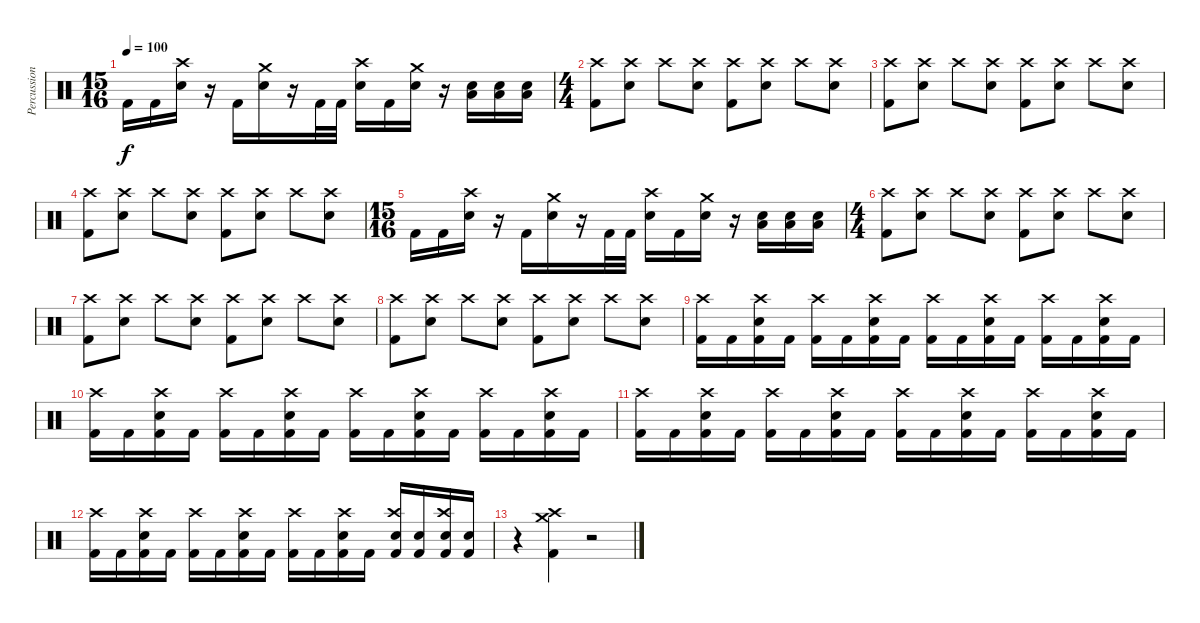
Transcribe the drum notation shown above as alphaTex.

\track ("Percussion" "Percussion") {instrument percussion}
\staff {score}
\articulation defaults
\ts (15 16)
\tempo 100
\clef neutral
\ks c "Kick (hit) 2".16{dy f} "Kick (hit) 2".16
("Crash high (hit)" "Electric Snare (hit)").16 r.16 "Kick (hit) 2".16 ("Crash medium (hit)" "Electric Snare (hit)").16 r.16 "Kick (hit) 2".32 "Kick (hit) 2".32 ("Crash high (hit)" "Electric Snare (hit)").16 "Kick (hit) 2".16 ("Crash medium (hit)" "Electric Snare (hit)").16 r.16 ("Electric Snare (hit)" "Low Floor Tom (hit)").16 ("Electric Snare (hit)" "Low Floor Tom (hit)").16 ("Electric Snare (hit)" "Low Floor Tom (hit)").16 |
\ts (4 4)
("Crash high (hit)" "Kick (hit) 2").8 ("Crash high (hit)" "Electric Snare (hit)").8 "Crash high (hit)".8 ("Crash high (hit)" "Electric Snare (hit)").8 ("Crash high (hit)" "Kick (hit) 2").8 ("Crash high (hit)" "Electric Snare (hit)").8 "Crash high (hit)".8 ("Crash high (hit)" "Electric Snare (hit)").8 |
("Crash high (hit)" "Kick (hit) 2").8 ("Crash high (hit)" "Electric Snare (hit)").8 "Crash high (hit)".8 ("Crash high (hit)" "Electric Snare (hit)").8 ("Crash high (hit)" "Kick (hit) 2").8 ("Crash high (hit)" "Electric Snare (hit)").8 "Crash high (hit)".8 ("Crash high (hit)" "Electric Snare (hit)").8 |
("Crash high (hit)" "Kick (hit) 2").8 ("Crash high (hit)" "Electric Snare (hit)").8 "Crash high (hit)".8 ("Crash high (hit)" "Electric Snare (hit)").8 ("Crash high (hit)" "Kick (hit) 2").8 ("Crash high (hit)" "Electric Snare (hit)").8 "Crash high (hit)".8 ("Crash high (hit)" "Electric Snare (hit)").8 |
\ts (15 16)
"Kick (hit) 2".16 "Kick (hit) 2".16 ("Crash high (hit)" "Electric Snare (hit)").16 r.16 "Kick (hit) 2".16 ("Crash medium (hit)" "Electric Snare (hit)").16 r.16 "Kick (hit) 2".32 "Kick (hit) 2".32 ("Crash high (hit)" "Electric Snare (hit)").16 "Kick (hit) 2".16 ("Crash medium (hit)" "Electric Snare (hit)").16 r.16 ("Electric Snare (hit)" "Low Floor Tom (hit)").16 ("Electric Snare (hit)" "Low Floor Tom (hit)").16 ("Electric Snare (hit)" "Low Floor Tom (hit)").16 |
\ts (4 4)
("Crash high (hit)" "Kick (hit) 2").8 ("Crash high (hit)" "Electric Snare (hit)").8 "Crash high (hit)".8 ("Crash high (hit)" "Electric Snare (hit)").8 ("Crash high (hit)" "Kick (hit) 2").8 ("Crash high (hit)" "Electric Snare (hit)").8 "Crash high (hit)".8 ("Crash high (hit)" "Electric Snare (hit)").8 |
("Crash high (hit)" "Kick (hit) 2").8 ("Crash high (hit)" "Electric Snare (hit)").8 "Crash high (hit)".8 ("Crash high (hit)" "Electric Snare (hit)").8 ("Crash high (hit)" "Kick (hit) 2").8 ("Crash high (hit)" "Electric Snare (hit)").8 "Crash high (hit)".8 ("Crash high (hit)" "Electric Snare (hit)").8 |
("Crash high (hit)" "Kick (hit) 2").8 ("Crash high (hit)" "Electric Snare (hit)").8 "Crash high (hit)".8 ("Crash high (hit)" "Electric Snare (hit)").8 ("Crash high (hit)" "Kick (hit) 2").8 ("Crash high (hit)" "Electric Snare (hit)").8 "Crash high (hit)".8 ("Crash high (hit)" "Electric Snare (hit)").8 |
("Crash high (hit)" "Kick (hit) 2").16 "Kick (hit) 2".16 ("Crash high (hit)" "Electric Snare (hit)" "Kick (hit) 2").16 "Kick (hit) 2".16 ("Crash high (hit)" "Kick (hit) 2").16 "Kick (hit) 2".16 ("Crash high (hit)" "Electric Snare (hit)" "Kick (hit) 2").16 "Kick (hit) 2".16 ("Crash high (hit)" "Kick (hit) 2").16 "Kick (hit) 2".16 ("Crash high (hit)" "Electric Snare (hit)" "Kick (hit) 2").16 "Kick (hit) 2".16 ("Crash high (hit)" "Kick (hit) 2").16 "Kick (hit) 2".16 ("Crash high (hit)" "Electric Snare (hit)" "Kick (hit) 2").16 "Kick (hit) 2".16 |
("Crash high (hit)" "Kick (hit) 2").16 "Kick (hit) 2".16 ("Crash high (hit)" "Electric Snare (hit)" "Kick (hit) 2").16 "Kick (hit) 2".16 ("Crash high (hit)" "Kick (hit) 2").16 "Kick (hit) 2".16 ("Crash high (hit)" "Electric Snare (hit)" "Kick (hit) 2").16 "Kick (hit) 2".16 ("Crash high (hit)" "Kick (hit) 2").16 "Kick (hit) 2".16 ("Crash high (hit)" "Electric Snare (hit)" "Kick (hit) 2").16 "Kick (hit) 2".16 ("Crash high (hit)" "Kick (hit) 2").16 "Kick (hit) 2".16 ("Crash high (hit)" "Electric Snare (hit)" "Kick (hit) 2").16 "Kick (hit) 2".16 |
("Crash high (hit)" "Kick (hit) 2").16 "Kick (hit) 2".16 ("Crash high (hit)" "Electric Snare (hit)" "Kick (hit) 2").16 "Kick (hit) 2".16 ("Crash high (hit)" "Kick (hit) 2").16 "Kick (hit) 2".16 ("Crash high (hit)" "Electric Snare (hit)" "Kick (hit) 2").16 "Kick (hit) 2".16 ("Crash high (hit)" "Kick (hit) 2").16 "Kick (hit) 2".16 ("Crash high (hit)" "Electric Snare (hit)" "Kick (hit) 2").16 "Kick (hit) 2".16 ("Crash high (hit)" "Kick (hit) 2").16 "Kick (hit) 2".16 ("Crash high (hit)" "Electric Snare (hit)" "Kick (hit) 2").16 "Kick (hit) 2".16 |
("Crash high (hit)" "Kick (hit) 2").16 "Kick (hit) 2".16 ("Crash high (hit)" "Electric Snare (hit)" "Kick (hit) 2").16 "Kick (hit) 2".16 ("Crash high (hit)" "Kick (hit) 2").16 "Kick (hit) 2".16 ("Crash high (hit)" "Electric Snare (hit)" "Kick (hit) 2").16 "Kick (hit) 2".16 ("Crash high (hit)" "Kick (hit) 2").16 "Kick (hit) 2".16 ("Crash high (hit)" "Electric Snare (hit)" "Kick (hit) 2").16 "Kick (hit) 2".16 ("Crash high (hit)" "Electric Snare (hit)" "Kick (hit) 2").16 ("Electric Snare (hit)" "Kick (hit) 2").16 ("Crash high (hit)" "Electric Snare (hit)" "Kick (hit) 2").16 ("Electric Snare (hit)" "Kick (hit) 2").16 |
r.4 ("Crash high (hit)" "Crash medium (hit)" "Kick (hit) 2").4 r.2
